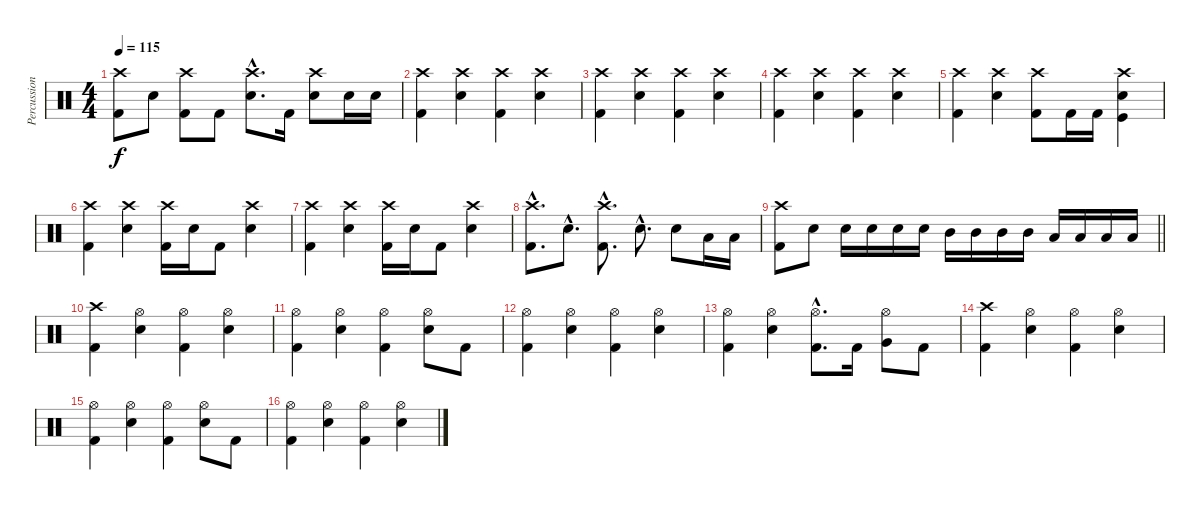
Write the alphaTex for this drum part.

\track ("Percussion" "Percussion") {instrument percussion}
\staff {score}
\articulation defaults
\ts (4 4)
\tempo 115
\clef neutral
\ks c
("Crash high (hit)" "Kick (hit) 2").8{dy f} "Snare (hit) 2".8 ("Crash high (hit)" "Kick (hit) 2").8 "Kick (hit) 2".8 ("Crash high (hit)"{hac} "Snare (hit) 2"{hac}).8{d} "Kick (hit) 2".16 ("Crash high (hit)" "Snare (hit) 2").8 "Snare (hit) 2".16 "Snare (hit) 2".16 |
("Crash high (hit)" "Kick (hit) 2").4 ("Crash high (hit)" "Snare (hit) 2").4 ("Crash high (hit)" "Kick (hit) 2").4 ("Crash high (hit)" "Snare (hit) 2").4 |
("Crash high (hit)" "Kick (hit) 2").4 ("Crash high (hit)" "Snare (hit) 2").4 ("Crash high (hit)" "Kick (hit) 2").4 ("Crash high (hit)" "Snare (hit) 2").4 |
("Crash high (hit)" "Kick (hit) 2").4 ("Crash high (hit)" "Snare (hit) 2").4 ("Crash high (hit)" "Kick (hit) 2").4 ("Crash high (hit)" "Snare (hit) 2").4 |
("Crash high (hit)" "Kick (hit) 2").4 ("Crash high (hit)" "Snare (hit) 2").4 ("Crash high (hit)" "Kick (hit) 2").8 "Kick (hit) 2".16 "Kick (hit) 2".16 ("Crash high (hit)" "Kick (hit)" "Snare (hit) 2").4 |
("Crash high (hit)" "Kick (hit) 2").4 ("Crash high (hit)" "Snare (hit) 2").4 ("Crash high (hit)" "Kick (hit) 2").16 "Snare (hit) 2".16 "Kick (hit) 2".8 ("Crash high (hit)" "Snare (hit) 2").4 |
("Crash high (hit)" "Kick (hit) 2").4 ("Crash high (hit)" "Snare (hit) 2").4 ("Crash high (hit)" "Kick (hit) 2").16 "Snare (hit) 2".16 "Kick (hit) 2".8 ("Crash high (hit)" "Snare (hit) 2").4 |
("Crash high (hit)"{hac} "Kick (hit) 2"{hac}).8{d} "Snare (hit) 2"{hac}.8{d} ("Crash high (hit)"{hac} "Kick (hit) 2"{hac}).8{d} "Snare (hit) 2"{hac}.8{d} "Snare (hit) 2".8 "Low Tom (hit)".16 "Low Tom (hit)".16 |
\barLineRight lightlight
("Crash high (hit)" "Kick (hit) 2").8 "Snare (hit) 2".8 "Snare (hit) 2".16 "Snare (hit) 2".16 "Snare (hit) 2".16 "Snare (hit) 2".16 "Mid Tom (hit)".16 "Mid Tom (hit)".16 "Mid Tom (hit)".16 "Mid Tom (hit)".16 "Low Tom (hit)".16 "Low Tom (hit)".16 "Low Tom (hit)".16 "Low Tom (hit)".16 |
("Crash high (hit)" "Kick (hit) 2").4 ("Hi-Hat (open)" "Snare (hit) 2").4 ("Hi-Hat (open)" "Kick (hit) 2").4 ("Hi-Hat (open)" "Snare (hit) 2").4 |
("Hi-Hat (open)" "Kick (hit) 2").4 ("Hi-Hat (open)" "Snare (hit) 2").4 ("Hi-Hat (open)" "Kick (hit) 2").4 ("Hi-Hat (open)" "Snare (hit) 2").8 "Kick (hit) 2".8 |
("Hi-Hat (open)" "Kick (hit) 2").4 ("Hi-Hat (open)" "Snare (hit) 2").4 ("Hi-Hat (open)" "Kick (hit) 2").4 ("Hi-Hat (open)" "Snare (hit) 2").4 |
("Hi-Hat (open)" "Kick (hit) 2").4 ("Hi-Hat (open)" "Snare (hit) 2").4 ("Hi-Hat (open)"{hac} "Kick (hit) 2"{hac}).8{d} "Kick (hit) 2".16 ("Hi-Hat (open)" "Very Low Tom (hit)").8 "Kick (hit) 2".8 |
("Crash high (hit)" "Kick (hit) 2").4 ("Hi-Hat (open)" "Snare (hit) 2").4 ("Hi-Hat (open)" "Kick (hit) 2").4 ("Hi-Hat (open)" "Snare (hit) 2").4 |
("Hi-Hat (open)" "Kick (hit) 2").4 ("Hi-Hat (open)" "Snare (hit) 2").4 ("Hi-Hat (open)" "Kick (hit) 2").4 ("Hi-Hat (open)" "Snare (hit) 2").8 "Kick (hit) 2".8 |
("Hi-Hat (open)" "Kick (hit) 2").4 ("Hi-Hat (open)" "Snare (hit) 2").4 ("Hi-Hat (open)" "Kick (hit) 2").4 ("Hi-Hat (open)" "Snare (hit) 2").4
